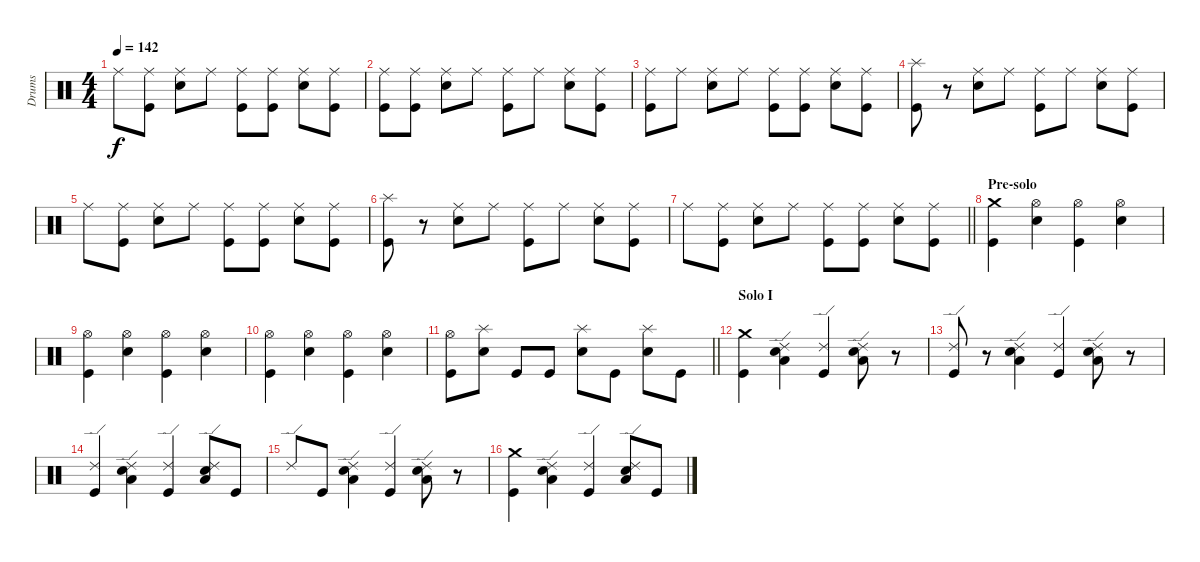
\track ("Drums" "Drums") {instrument percussion}
\staff {score}
\articulation defaults
\ts (4 4)
\tempo 142
\clef neutral
\ks c "Ride (middle)".8{dy f}
("Ride (middle)" "Kick (hit)").8 ("Ride (middle)" "Electric Snare (hit)").8 "Ride (middle)".8 ("Ride (middle)" "Kick (hit)").8 ("Ride (middle)" "Kick (hit)").8 ("Ride (middle)" "Electric Snare (hit)").8 ("Ride (middle)" "Kick (hit)").8 |
("Ride (middle)" "Kick (hit)").8 ("Ride (middle)" "Kick (hit)").8 ("Ride (middle)" "Electric Snare (hit)").8 "Ride (middle)".8 ("Ride (middle)" "Kick (hit)").8 "Ride (middle)".8 ("Ride (middle)" "Electric Snare (hit)").8 ("Ride (middle)" "Kick (hit)").8 |
("Ride (middle)" "Kick (hit)").8 "Ride (middle)".8 ("Ride (middle)" "Electric Snare (hit)").8 "Ride (middle)".8 ("Ride (middle)" "Kick (hit)").8 ("Ride (middle)" "Kick (hit)").8 ("Ride (middle)" "Electric Snare (hit)").8 ("Ride (middle)" "Kick (hit)").8 |
("Splash (hit)" "Kick (hit)").8 r.8 ("Ride (middle)" "Electric Snare (hit)").8 "Ride (middle)".8 ("Ride (middle)" "Kick (hit)").8 "Ride (middle)".8 ("Ride (middle)" "Electric Snare (hit)").8 ("Ride (middle)" "Kick (hit)").8 |
"Ride (middle)".8 ("Ride (middle)" "Kick (hit)").8 ("Ride (middle)" "Electric Snare (hit)").8 "Ride (middle)".8 ("Ride (middle)" "Kick (hit)").8 ("Ride (middle)" "Kick (hit)").8 ("Ride (middle)" "Electric Snare (hit)").8 ("Ride (middle)" "Kick (hit)").8 |
("Splash (hit)" "Kick (hit)").8 r.8 ("Ride (middle)" "Electric Snare (hit)").8 "Ride (middle)".8 ("Ride (middle)" "Kick (hit)").8 "Ride (middle)".8 ("Ride (middle)" "Electric Snare (hit)").8 ("Ride (middle)" "Kick (hit)").8 |
\barLineRight lightlight "Ride (middle)".8
("Ride (middle)" "Kick (hit)").8 ("Ride (middle)" "Electric Snare (hit)").8 "Ride (middle)".8 ("Ride (middle)" "Kick (hit)").8 ("Ride (middle)" "Kick (hit)").8 ("Ride (middle)" "Electric Snare (hit)").8 ("Ride (middle)" "Kick (hit)").8 |
\section ("" "Pre-solo")
("Crash medium (hit)" "Kick (hit)").4 ("Hi-Hat (open)" "Electric Snare (hit)").4 ("Hi-Hat (open)" "Kick (hit)").4 ("Hi-Hat (open)" "Electric Snare (hit)").4 |
("Hi-Hat (open)" "Kick (hit)").4 ("Hi-Hat (open)" "Electric Snare (hit)").4 ("Hi-Hat (open)" "Kick (hit)").4 ("Hi-Hat (open)" "Electric Snare (hit)").4 |
("Hi-Hat (open)" "Kick (hit)").4 ("Hi-Hat (open)" "Electric Snare (hit)").4 ("Hi-Hat (open)" "Kick (hit)").4 ("Hi-Hat (open)" "Electric Snare (hit)").4 |
\barLineRight lightlight
("Hi-Hat (open)" "Kick (hit)").8 ("Splash (hit)" "Electric Snare (hit)").8 "Kick (hit)".8 "Kick (hit)".8 ("Splash (hit)" "Electric Snare (hit)").8 "Kick (hit)".8 ("Splash (hit)" "Electric Snare (hit)").8 "Kick (hit)".8 |
\section ("" "Solo I")
("Crash medium (hit)" "Kick (hit)").4 ("Ride (edge) 2" "Low Tom (hit)" "Electric Snare (hit)").4 ("Ride (edge) 2" "Kick (hit)").4 ("Ride (edge) 2" "Low Tom (hit)" "Electric Snare (hit)").8 r.8 |
("Ride (edge) 2" "Kick (hit)").8 r.8 ("Ride (edge) 2" "Low Tom (hit)" "Electric Snare (hit)").4 ("Ride (edge) 2" "Kick (hit)").4 ("Ride (edge) 2" "Low Tom (hit)" "Electric Snare (hit)").8 r.8 |
("Ride (edge) 2" "Kick (hit)").4 ("Ride (edge) 2" "Low Tom (hit)" "Electric Snare (hit)").4 ("Ride (edge) 2" "Kick (hit)").4 ("Ride (edge) 2" "Low Tom (hit)" "Electric Snare (hit)").8 "Kick (hit)".8 |
"Ride (edge) 2".8 "Kick (hit)".8 ("Ride (edge) 2" "Low Tom (hit)" "Electric Snare (hit)").4 ("Ride (edge) 2" "Kick (hit)").4 ("Ride (edge) 2" "Low Tom (hit)" "Electric Snare (hit)").8 r.8 |
("Crash medium (hit)" "Kick (hit)").4 ("Ride (edge) 2" "Low Tom (hit)" "Electric Snare (hit)").4 ("Ride (edge) 2" "Kick (hit)").4 ("Ride (edge) 2" "Low Tom (hit)" "Electric Snare (hit)").8 "Kick (hit)".8
